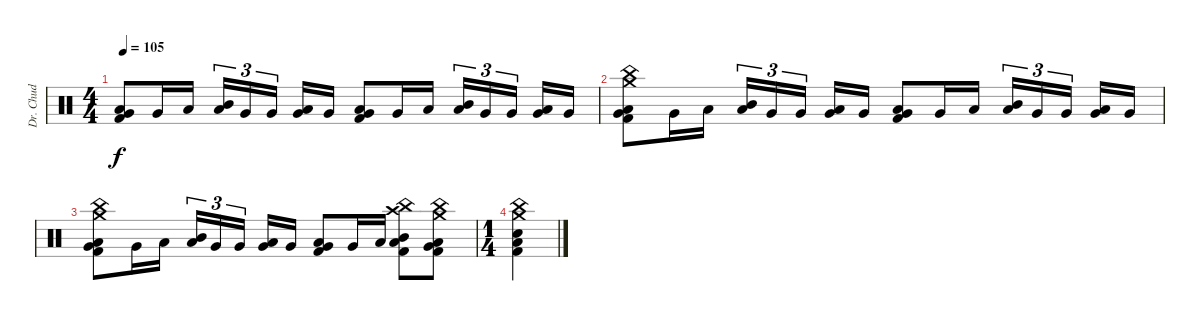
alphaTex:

\track ("Dr. Chud" "Dr. Chud") {instrument percussion}
\staff {score}
\articulation defaults
\ts (4 4)
\tempo 105
\clef neutral
\ks c
("Very Low Tom (hit)" "Low Floor Tom (hit)" "Kick (hit) 2").8{dy f} "Very Low Tom (hit)".16 "Low Tom (hit)".16 ("Mid Tom (hit)" "Low Tom (hit)").16{tu (3 2)} "Very Low Tom (hit)".16{tu (3 2)} "Very Low Tom (hit)".16{tu (3 2)} ("Very Low Tom (hit)" "Low Floor Tom (hit)").16 "Very Low Tom (hit)".16 ("Very Low Tom (hit)" "Low Floor Tom (hit)" "Kick (hit) 2").8 "Very Low Tom (hit)".16 "Low Tom (hit)".16 ("Mid Tom (hit)" "Low Tom (hit)").16{tu (3 2)} "Very Low Tom (hit)".16{tu (3 2)} "Very Low Tom (hit)".16{tu (3 2)} ("Very Low Tom (hit)" "Low Floor Tom (hit)").16 "Very Low Tom (hit)".16 |
("Crash medium (hit)" "China (hit)" "Very Low Tom (hit)" "Low Floor Tom (hit)" "Kick (hit) 2").8 "Very Low Tom (hit)".16 "Low Tom (hit)".16 ("Mid Tom (hit)" "Low Tom (hit)").16{tu (3 2)} "Very Low Tom (hit)".16{tu (3 2)} "Very Low Tom (hit)".16{tu (3 2)} ("Very Low Tom (hit)" "Low Floor Tom (hit)").16 "Very Low Tom (hit)".16 ("Very Low Tom (hit)" "Low Floor Tom (hit)" "Kick (hit) 2").8 "Very Low Tom (hit)".16 "Low Tom (hit)".16 ("Mid Tom (hit)" "Low Tom (hit)").16{tu (3 2)} "Very Low Tom (hit)".16{tu (3 2)} "Very Low Tom (hit)".16{tu (3 2)} ("Very Low Tom (hit)" "Low Floor Tom (hit)").16 "Very Low Tom (hit)".16 |
("Crash medium (hit)" "China (hit)" "Very Low Tom (hit)" "Low Floor Tom (hit)" "Kick (hit) 2").8 "Very Low Tom (hit)".16 "Low Tom (hit)".16 ("Mid Tom (hit)" "Low Tom (hit)").16{tu (3 2)} "Very Low Tom (hit)".16{tu (3 2)} "Very Low Tom (hit)".16{tu (3 2)} ("Very Low Tom (hit)" "Low Floor Tom (hit)").16 "Very Low Tom (hit)".16 ("Very Low Tom (hit)" "Low Floor Tom (hit)" "Kick (hit) 2").8 "Very Low Tom (hit)".16 "Low Tom (hit)".16 ("Crash high (hit)" "China (hit)" "Mid Tom (hit)" "Low Tom (hit)" "Kick (hit) 2").8 ("Crash medium (hit)" "China (hit)" "Very Low Tom (hit)" "Low Floor Tom (hit)" "Kick (hit) 2").8 |
\ts (1 4)
("Crash medium (hit)" "China (hit)" "Low Floor Tom (hit)" "Electric Snare (hit)" "Kick (hit) 2").4
